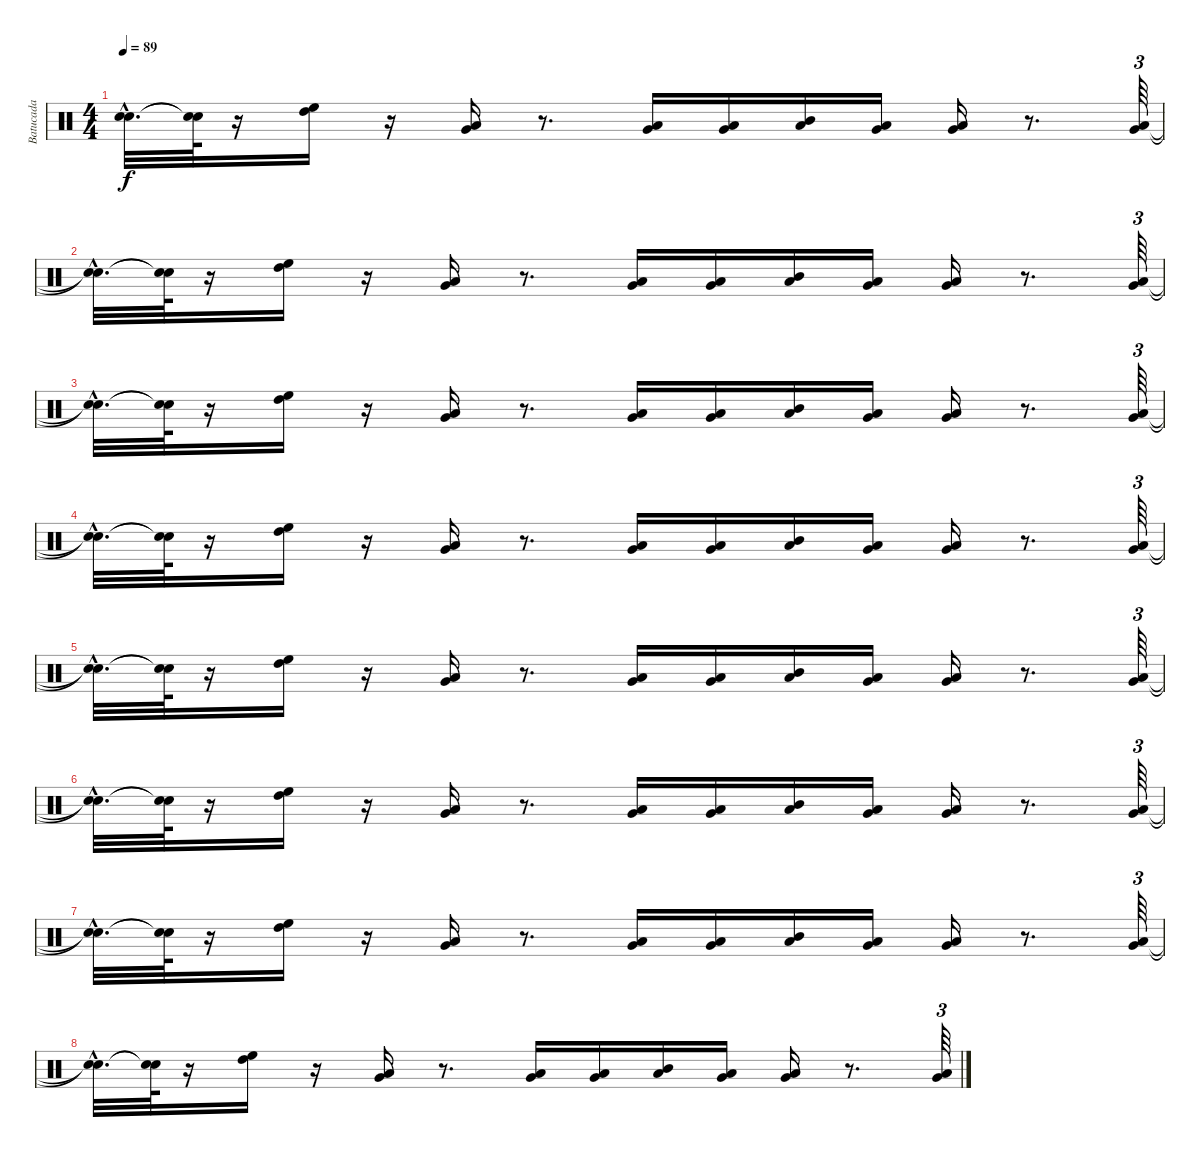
\track ("Batucada" "Batucada") {instrument percussion}
\staff {score}
\articulation defaults
\ts (4 4)
\tempo 89
\clef neutral
\ks c
("Snare (hit)"{hac t} "Snare (hit)"{hac t}).32{d dy f} ("Snare (hit)"{t} "Snare (hit)"{t}).64 r.16 ("High Floor Tom (hit)" "High Tom (hit)").16 r.16 ("Very Low Tom (hit)" "Low Floor Tom (hit)").16 r.8{d} ("Very Low Tom (hit)" "Low Floor Tom (hit)").16 ("Very Low Tom (hit)" "Low Floor Tom (hit)").16 ("Mid Tom (hit)" "Low Floor Tom (hit)").16 ("Very Low Tom (hit)" "Low Floor Tom (hit)").16 ("Very Low Tom (hit)" "Low Floor Tom (hit)").16 r.8{d} ("Very Low Tom (hit)" "Low Floor Tom (hit)").64{tu (3 2)} |
("Snare (hit)"{hac t} "Snare (hit)"{hac t}).32{d} ("Snare (hit)"{t} "Snare (hit)"{t}).64 r.16 ("High Floor Tom (hit)" "High Tom (hit)").16 r.16 ("Very Low Tom (hit)" "Low Floor Tom (hit)").16 r.8{d} ("Very Low Tom (hit)" "Low Floor Tom (hit)").16 ("Very Low Tom (hit)" "Low Floor Tom (hit)").16 ("Mid Tom (hit)" "Low Floor Tom (hit)").16 ("Very Low Tom (hit)" "Low Floor Tom (hit)").16 ("Very Low Tom (hit)" "Low Floor Tom (hit)").16 r.8{d} ("Very Low Tom (hit)" "Low Floor Tom (hit)").64{tu (3 2)} |
("Snare (hit)"{hac t} "Snare (hit)"{hac t}).32{d} ("Snare (hit)"{t} "Snare (hit)"{t}).64 r.16 ("High Floor Tom (hit)" "High Tom (hit)").16 r.16 ("Very Low Tom (hit)" "Low Floor Tom (hit)").16 r.8{d} ("Very Low Tom (hit)" "Low Floor Tom (hit)").16 ("Very Low Tom (hit)" "Low Floor Tom (hit)").16 ("Mid Tom (hit)" "Low Floor Tom (hit)").16 ("Very Low Tom (hit)" "Low Floor Tom (hit)").16 ("Very Low Tom (hit)" "Low Floor Tom (hit)").16 r.8{d} ("Very Low Tom (hit)" "Low Floor Tom (hit)").64{tu (3 2)} |
("Snare (hit)"{hac t} "Snare (hit)"{hac t}).32{d} ("Snare (hit)"{t} "Snare (hit)"{t}).64 r.16 ("High Floor Tom (hit)" "High Tom (hit)").16 r.16 ("Very Low Tom (hit)" "Low Floor Tom (hit)").16 r.8{d} ("Very Low Tom (hit)" "Low Floor Tom (hit)").16 ("Very Low Tom (hit)" "Low Floor Tom (hit)").16 ("Mid Tom (hit)" "Low Floor Tom (hit)").16 ("Very Low Tom (hit)" "Low Floor Tom (hit)").16 ("Very Low Tom (hit)" "Low Floor Tom (hit)").16 r.8{d} ("Very Low Tom (hit)" "Low Floor Tom (hit)").64{tu (3 2)} |
("Snare (hit)"{hac t} "Snare (hit)"{hac t}).32{d} ("Snare (hit)"{t} "Snare (hit)"{t}).64 r.16 ("High Floor Tom (hit)" "High Tom (hit)").16 r.16 ("Very Low Tom (hit)" "Low Floor Tom (hit)").16 r.8{d} ("Very Low Tom (hit)" "Low Floor Tom (hit)").16 ("Very Low Tom (hit)" "Low Floor Tom (hit)").16 ("Mid Tom (hit)" "Low Floor Tom (hit)").16 ("Very Low Tom (hit)" "Low Floor Tom (hit)").16 ("Very Low Tom (hit)" "Low Floor Tom (hit)").16 r.8{d} ("Very Low Tom (hit)" "Low Floor Tom (hit)").64{tu (3 2)} |
("Snare (hit)"{hac t} "Snare (hit)"{hac t}).32{d} ("Snare (hit)"{t} "Snare (hit)"{t}).64 r.16 ("High Floor Tom (hit)" "High Tom (hit)").16 r.16 ("Very Low Tom (hit)" "Low Floor Tom (hit)").16 r.8{d} ("Very Low Tom (hit)" "Low Floor Tom (hit)").16 ("Very Low Tom (hit)" "Low Floor Tom (hit)").16 ("Mid Tom (hit)" "Low Floor Tom (hit)").16 ("Very Low Tom (hit)" "Low Floor Tom (hit)").16 ("Very Low Tom (hit)" "Low Floor Tom (hit)").16 r.8{d} ("Very Low Tom (hit)" "Low Floor Tom (hit)").64{tu (3 2)} |
("Snare (hit)"{hac t} "Snare (hit)"{hac t}).32{d} ("Snare (hit)"{t} "Snare (hit)"{t}).64 r.16 ("High Floor Tom (hit)" "High Tom (hit)").16 r.16 ("Very Low Tom (hit)" "Low Floor Tom (hit)").16 r.8{d} ("Very Low Tom (hit)" "Low Floor Tom (hit)").16 ("Very Low Tom (hit)" "Low Floor Tom (hit)").16 ("Mid Tom (hit)" "Low Floor Tom (hit)").16 ("Very Low Tom (hit)" "Low Floor Tom (hit)").16 ("Very Low Tom (hit)" "Low Floor Tom (hit)").16 r.8{d} ("Very Low Tom (hit)" "Low Floor Tom (hit)").64{tu (3 2)} |
("Snare (hit)"{hac t} "Snare (hit)"{hac t}).32{d} ("Snare (hit)"{t} "Snare (hit)"{t}).64 r.16 ("High Floor Tom (hit)" "High Tom (hit)").16 r.16 ("Very Low Tom (hit)" "Low Floor Tom (hit)").16 r.8{d} ("Very Low Tom (hit)" "Low Floor Tom (hit)").16 ("Very Low Tom (hit)" "Low Floor Tom (hit)").16 ("Mid Tom (hit)" "Low Floor Tom (hit)").16 ("Very Low Tom (hit)" "Low Floor Tom (hit)").16 ("Very Low Tom (hit)" "Low Floor Tom (hit)").16 r.8{d} ("Very Low Tom (hit)" "Low Floor Tom (hit)").64{tu (3 2)}
